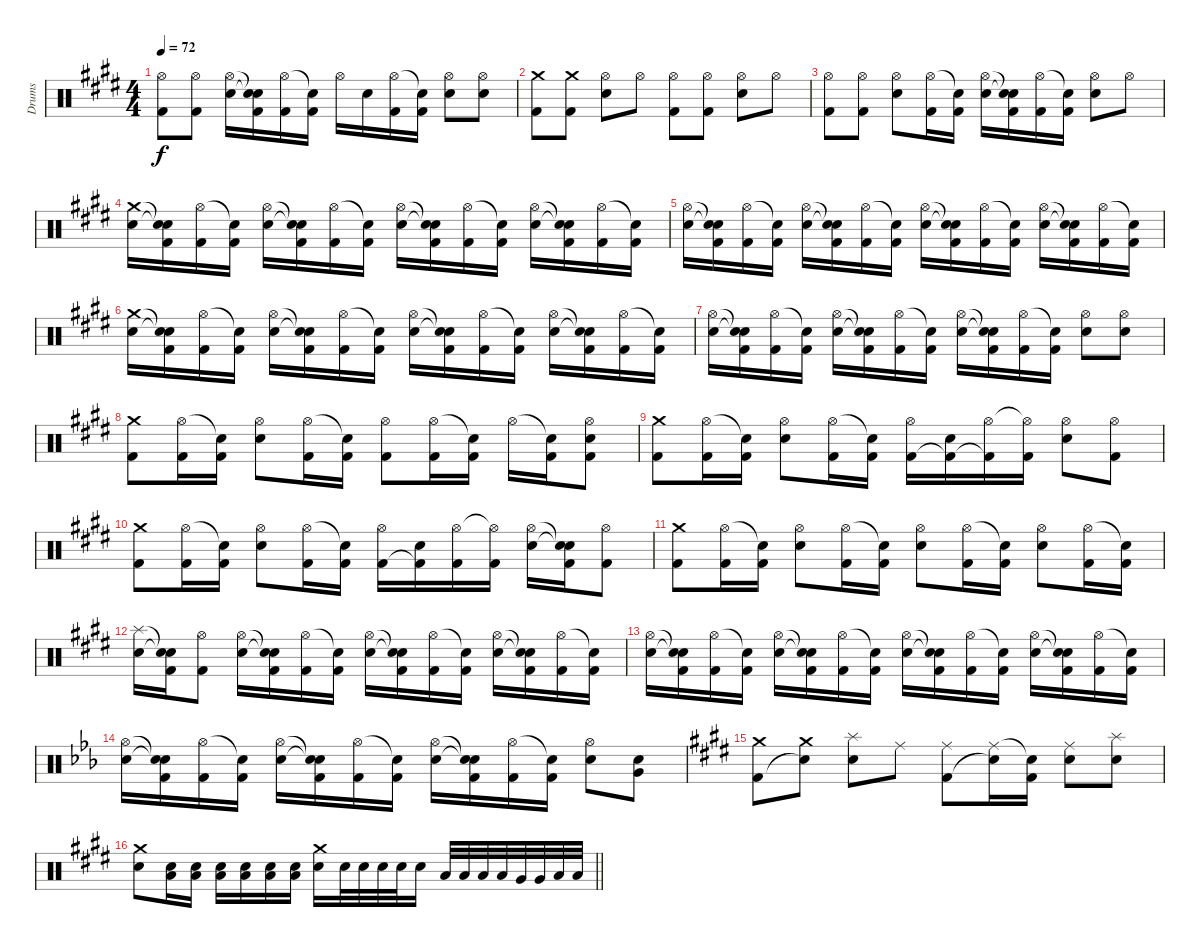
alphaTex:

\track ("Drums" "Drums") {instrument percussion}
\staff {score}
\articulation defaults
\ts (4 4)
\tempo 72
\clef neutral
\ks e
("Hi-Hat (open)" "Kick (hit) 2").8{dy f} ("Hi-Hat (open)" "Kick (hit) 2").8 ("Hi-Hat (open)" "Electric Snare (hit)").16 ("Snare (hit)"{t} "Snare (hit)"{t} "Kick (hit) 2").16 ("Hi-Hat (open)" "Kick (hit) 2").16 ("Snare (hit)"{t} "Kick (hit) 2").16 "Hi-Hat (open)".16 "Electric Snare (hit)".16 ("Hi-Hat (open)" "Kick (hit) 2").16 ("Snare (hit)"{t} "Kick (hit) 2").16 ("Hi-Hat (open)" "Electric Snare (hit)").8 ("Hi-Hat (open)" "Electric Snare (hit)").8 |
("Crash medium (hit)" "Kick (hit) 2").8 ("Crash medium (hit)" "Kick (hit) 2").8 ("Hi-Hat (open)" "Electric Snare (hit)").8 "Hi-Hat (open)".8 ("Hi-Hat (open)" "Kick (hit) 2").8 ("Hi-Hat (open)" "Kick (hit) 2").8 ("Hi-Hat (open)" "Electric Snare (hit)").8 "Hi-Hat (open)".8 |
("Hi-Hat (open)" "Kick (hit) 2").8 ("Hi-Hat (open)" "Kick (hit) 2").8 ("Hi-Hat (open)" "Electric Snare (hit)").8 ("Hi-Hat (open)" "Kick (hit) 2").16 ("Snare (hit)"{t} "Kick (hit) 2").16 ("Hi-Hat (open)" "Electric Snare (hit)").16 ("Snare (hit)"{t} "Snare (hit)"{t} "Kick (hit) 2").16 ("Hi-Hat (open)" "Kick (hit) 2").16 ("Snare (hit)"{t} "Kick (hit) 2").16 ("Hi-Hat (open)" "Electric Snare (hit)").8 "Hi-Hat (open)".8 |
("Crash medium (hit)" "Electric Snare (hit)").16 ("Snare (hit)"{t} "Snare (hit)"{t} "Kick (hit) 2").16 ("Hi-Hat (open)" "Kick (hit) 2").16 ("Snare (hit)"{t} "Kick (hit) 2").16 ("Hi-Hat (open)" "Electric Snare (hit)").16 ("Snare (hit)"{t} "Snare (hit)"{t} "Kick (hit) 2").16 ("Hi-Hat (open)" "Kick (hit) 2").16 ("Snare (hit)"{t} "Kick (hit) 2").16 ("Hi-Hat (open)" "Electric Snare (hit)").16 ("Snare (hit)"{t} "Snare (hit)"{t} "Kick (hit) 2").16 ("Hi-Hat (open)" "Kick (hit) 2").16 ("Snare (hit)"{t} "Kick (hit) 2").16 ("Hi-Hat (open)" "Electric Snare (hit)").16 ("Snare (hit)"{t} "Snare (hit)"{t} "Kick (hit) 2").16 ("Hi-Hat (open)" "Kick (hit) 2").16 ("Snare (hit)"{t} "Kick (hit) 2").16 |
("Hi-Hat (open)" "Electric Snare (hit)").16 ("Snare (hit)"{t} "Snare (hit)"{t} "Kick (hit) 2").16 ("Hi-Hat (open)" "Kick (hit) 2").16 ("Snare (hit)"{t} "Kick (hit) 2").16 ("Hi-Hat (open)" "Electric Snare (hit)").16 ("Snare (hit)"{t} "Snare (hit)"{t} "Kick (hit) 2").16 ("Hi-Hat (open)" "Kick (hit) 2").16 ("Snare (hit)"{t} "Kick (hit) 2").16 ("Hi-Hat (open)" "Electric Snare (hit)").16 ("Snare (hit)"{t} "Snare (hit)"{t} "Kick (hit) 2").16 ("Hi-Hat (open)" "Kick (hit) 2").16 ("Snare (hit)"{t} "Kick (hit) 2").16 ("Hi-Hat (open)" "Electric Snare (hit)").16 ("Snare (hit)"{t} "Snare (hit)"{t} "Kick (hit) 2").16 ("Hi-Hat (open)" "Kick (hit) 2").16 ("Snare (hit)"{t} "Kick (hit) 2").16 |
("Crash medium (hit)" "Electric Snare (hit)").16 ("Snare (hit)"{t} "Snare (hit)"{t} "Kick (hit) 2").16 ("Hi-Hat (open)" "Kick (hit) 2").16 ("Snare (hit)"{t} "Kick (hit) 2").16 ("Hi-Hat (open)" "Electric Snare (hit)").16 ("Snare (hit)"{t} "Snare (hit)"{t} "Kick (hit) 2").16 ("Hi-Hat (open)" "Kick (hit) 2").16 ("Snare (hit)"{t} "Kick (hit) 2").16 ("Hi-Hat (open)" "Electric Snare (hit)").16 ("Snare (hit)"{t} "Snare (hit)"{t} "Kick (hit) 2").16 ("Hi-Hat (open)" "Kick (hit) 2").16 ("Snare (hit)"{t} "Kick (hit) 2").16 ("Hi-Hat (open)" "Electric Snare (hit)").16 ("Snare (hit)"{t} "Snare (hit)"{t} "Kick (hit) 2").16 ("Hi-Hat (open)" "Kick (hit) 2").16 ("Snare (hit)"{t} "Kick (hit) 2").16 |
("Hi-Hat (open)" "Electric Snare (hit)").16 ("Snare (hit)"{t} "Snare (hit)"{t} "Kick (hit) 2").16 ("Hi-Hat (open)" "Kick (hit) 2").16 ("Snare (hit)"{t} "Kick (hit) 2").16 ("Hi-Hat (open)" "Electric Snare (hit)").16 ("Snare (hit)"{t} "Snare (hit)"{t} "Kick (hit) 2").16 ("Hi-Hat (open)" "Kick (hit) 2").16 ("Snare (hit)"{t} "Kick (hit) 2").16 ("Hi-Hat (open)" "Electric Snare (hit)").16 ("Snare (hit)"{t} "Snare (hit)"{t} "Kick (hit) 2").16 ("Hi-Hat (open)" "Kick (hit) 2").16 ("Snare (hit)"{t} "Kick (hit) 2").16 ("Hi-Hat (open)" "Electric Snare (hit)").8 ("Hi-Hat (open)" "Electric Snare (hit)").8 |
("Crash medium (hit)" "Kick (hit) 2").8 ("Hi-Hat (open)" "Kick (hit) 2").16 ("Snare (hit)"{t} "Kick (hit) 2").16 ("Hi-Hat (open)" "Electric Snare (hit)").8 ("Hi-Hat (open)" "Kick (hit) 2").16 ("Snare (hit)"{t} "Kick (hit) 2").16 ("Hi-Hat (open)" "Kick (hit) 2").8 ("Hi-Hat (open)" "Kick (hit) 2").16 ("Snare (hit)"{t} "Kick (hit) 2").16 "Hi-Hat (open)".16 ("Snare (hit)"{t} "Kick (hit) 2").16 ("Hi-Hat (open)" "Electric Snare (hit)" "Kick (hit) 2").8 |
("Crash medium (hit)" "Kick (hit) 2").8 ("Hi-Hat (open)" "Kick (hit) 2").16 ("Snare (hit)"{t} "Kick (hit) 2").16 ("Hi-Hat (open)" "Electric Snare (hit)").8 ("Hi-Hat (open)" "Kick (hit) 2").16 ("Snare (hit)"{t} "Kick (hit) 2").16 ("Hi-Hat (open)" "Kick (hit) 2").16 ("Electric Snare (hit)" "Kick (hit) 2"{t}).16 ("Hi-Hat (open)" "Kick (hit) 2"{t}).16 ("Hi-Hat (open)"{t} "Kick (hit) 2").16 ("Hi-Hat (open)" "Electric Snare (hit)").8 ("Hi-Hat (open)" "Kick (hit) 2").8 |
("Crash medium (hit)" "Kick (hit) 2").8 ("Hi-Hat (open)" "Kick (hit) 2").16 ("Snare (hit)"{t} "Kick (hit) 2").16 ("Hi-Hat (open)" "Electric Snare (hit)").8 ("Hi-Hat (open)" "Kick (hit) 2").16 ("Snare (hit)"{t} "Kick (hit) 2").16 ("Hi-Hat (open)" "Kick (hit) 2").16 ("Electric Snare (hit)" "Kick (hit) 2"{t}).16 ("Hi-Hat (open)" "Kick (hit) 2").16 ("Hi-Hat (open)"{t} "Kick (hit) 2").16 ("Hi-Hat (open)" "Electric Snare (hit)").16 ("Snare (hit)"{t} "Snare (hit)"{t} "Kick (hit) 2").16 ("Hi-Hat (open)" "Kick (hit) 2").8 |
("Crash medium (hit)" "Kick (hit) 2").8 ("Hi-Hat (open)" "Kick (hit) 2").16 ("Snare (hit)"{t} "Kick (hit) 2").16 ("Hi-Hat (open)" "Electric Snare (hit)").8 ("Hi-Hat (open)" "Kick (hit) 2").16 ("Snare (hit)"{t} "Kick (hit) 2").16 ("Hi-Hat (open)" "Electric Snare (hit)").8 ("Hi-Hat (open)" "Kick (hit) 2").16 ("Snare (hit)"{t} "Kick (hit) 2").16 ("Hi-Hat (open)" "Electric Snare (hit)").8 ("Hi-Hat (open)" "Kick (hit) 2").16 ("Snare (hit)"{t} "Kick (hit) 2").16 |
("Splash (hit)" "Electric Snare (hit)").16 ("Snare (hit)"{t} "Snare (hit)"{t} "Kick (hit) 2").16 ("Hi-Hat (open)" "Kick (hit) 2").8 ("Hi-Hat (open)" "Electric Snare (hit)").16 ("Snare (hit)"{t} "Snare (hit)"{t} "Kick (hit) 2").16 ("Hi-Hat (open)" "Kick (hit) 2").16 ("Snare (hit)"{t} "Kick (hit) 2").16 ("Hi-Hat (open)" "Electric Snare (hit)").16 ("Snare (hit)"{t} "Snare (hit)"{t} "Kick (hit) 2").16 ("Hi-Hat (open)" "Kick (hit) 2").16 ("Snare (hit)"{t} "Kick (hit) 2").16 ("Hi-Hat (open)" "Electric Snare (hit)").16 ("Snare (hit)"{t} "Snare (hit)"{t} "Kick (hit) 2").16 ("Hi-Hat (open)" "Kick (hit) 2").16 ("Snare (hit)"{t} "Kick (hit) 2").16 |
("Hi-Hat (open)" "Electric Snare (hit)").16 ("Snare (hit)"{t} "Snare (hit)"{t} "Kick (hit) 2").16 ("Hi-Hat (open)" "Kick (hit) 2").16 ("Snare (hit)"{t} "Kick (hit) 2").16 ("Hi-Hat (open)" "Electric Snare (hit)").16 ("Snare (hit)"{t} "Snare (hit)"{t} "Kick (hit) 2").16 ("Hi-Hat (open)" "Kick (hit) 2").16 ("Snare (hit)"{t} "Kick (hit) 2").16 ("Hi-Hat (open)" "Electric Snare (hit)").16 ("Snare (hit)"{t} "Snare (hit)"{t} "Kick (hit) 2").16 ("Hi-Hat (open)" "Kick (hit) 2").16 ("Snare (hit)"{t} "Kick (hit) 2").16 ("Hi-Hat (open)" "Electric Snare (hit)").16 ("Snare (hit)"{t} "Snare (hit)"{t} "Kick (hit) 2").16 ("Hi-Hat (open)" "Kick (hit) 2").16 ("Snare (hit)"{t} "Kick (hit) 2").16 |
\ks eb
("Hi-Hat (open)" "Electric Snare (hit)").16 ("Snare (hit)"{t} "Snare (hit)"{t} "Kick (hit) 2").16 ("Hi-Hat (open)" "Kick (hit) 2").16 ("Snare (hit)"{t} "Kick (hit) 2").16 ("Hi-Hat (open)" "Electric Snare (hit)").16 ("Snare (hit)"{t} "Snare (hit)"{t} "Kick (hit) 2").16 ("Hi-Hat (open)" "Kick (hit) 2").16 ("Snare (hit)"{t} "Kick (hit) 2").16 ("Hi-Hat (open)" "Electric Snare (hit)").16 ("Snare (hit)"{t} "Snare (hit)"{t} "Kick (hit) 2").16 ("Hi-Hat (open)" "Kick (hit) 2").16 ("Snare (hit)"{t} "Kick (hit) 2").16 ("Hi-Hat (open)" "Electric Snare (hit)").8 ("Electric Snare (hit)" "Very Low Tom (hit)").8 |
\ks e
("Crash medium (hit)" "Kick (hit) 2").8 ("Crash medium (hit)" "Snare (hit)"{t}).8 ("Splash (hit)" "Electric Snare (hit)").8 "Ride (middle)".8 ("Ride (middle)" "Kick (hit) 2").8 ("Ride (middle)" "Snare (hit)"{t}).16 ("Snare (hit)"{t} "Kick (hit) 2").16 ("Ride (middle)" "Electric Snare (hit)").8 ("Splash (hit)" "Electric Snare (hit)").8 |
\barLineRight lightlight
("Crash medium (hit)" "Electric Snare (hit)").8 ("Electric Snare (hit)" "Low Floor Tom (hit)").16 ("Electric Snare (hit)" "Low Floor Tom (hit)").16 ("Electric Snare (hit)" "Low Floor Tom (hit)").16 ("Electric Snare (hit)" "Low Floor Tom (hit)").16 ("Electric Snare (hit)" "Low Floor Tom (hit)").16 ("Electric Snare (hit)" "Low Floor Tom (hit)").16 ("Crash medium (hit)" "Electric Snare (hit)").16 "Electric Snare (hit)".32 "Electric Snare (hit)".32 "Electric Snare (hit)".32 "Electric Snare (hit)".32 "Electric Snare (hit)".16 "Low Tom (hit)".32 "Low Tom (hit)".32 "Low Tom (hit)".32 "Low Tom (hit)".32 "Very Low Tom (hit)".32 "Very Low Tom (hit)".32 "Low Floor Tom (hit)".32 "Low Floor Tom (hit)".32
